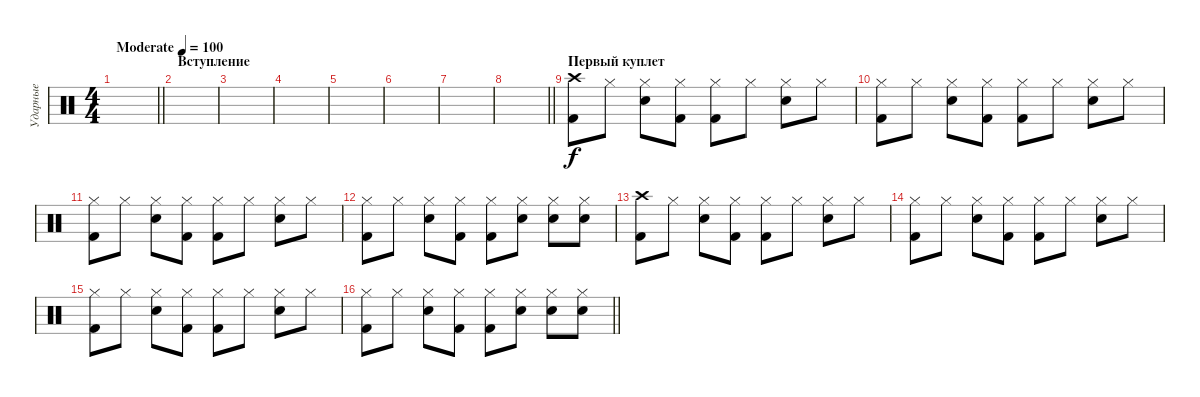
\track ("Ударные" "Ударные") {instrument percussion}
\staff {score}
\articulation defaults
\ts (4 4)
\tempo (100 "Moderate")
\clef neutral
\barLineRight lightlight
\ks c
|
\section ("" "Вступление")
|
|
|
|
|
|
\barLineRight lightlight
|
\section ("" "Первый куплет")
("Crash high (hit)" "Kick (hit) 2").8 "Hi-Hat (closed)".8 ("Hi-Hat (closed)" "Snare (hit) 2").8 ("Hi-Hat (closed)" "Kick (hit) 2").8 ("Hi-Hat (closed)" "Kick (hit) 2").8 "Hi-Hat (closed)".8 ("Hi-Hat (closed)" "Snare (hit) 2").8 "Hi-Hat (closed)".8 |
("Hi-Hat (closed)" "Kick (hit) 2").8 "Hi-Hat (closed)".8 ("Hi-Hat (closed)" "Snare (hit) 2").8 ("Hi-Hat (closed)" "Kick (hit) 2").8 ("Hi-Hat (closed)" "Kick (hit) 2").8 "Hi-Hat (closed)".8 ("Hi-Hat (closed)" "Snare (hit) 2").8 "Hi-Hat (closed)".8 |
("Hi-Hat (closed)" "Kick (hit) 2").8 "Hi-Hat (closed)".8 ("Hi-Hat (closed)" "Snare (hit) 2").8 ("Hi-Hat (closed)" "Kick (hit) 2").8 ("Hi-Hat (closed)" "Kick (hit) 2").8 "Hi-Hat (closed)".8 ("Hi-Hat (closed)" "Snare (hit) 2").8 "Hi-Hat (closed)".8 |
("Hi-Hat (closed)" "Kick (hit) 2").8 "Hi-Hat (closed)".8 ("Hi-Hat (closed)" "Snare (hit) 2").8 ("Hi-Hat (closed)" "Kick (hit) 2").8 ("Hi-Hat (closed)" "Kick (hit) 2").8 ("Hi-Hat (closed)" "Snare (hit) 2").8 ("Hi-Hat (closed)" "Snare (hit) 2").8 ("Hi-Hat (closed)" "Snare (hit) 2").8 |
("Crash high (hit)" "Kick (hit) 2").8 "Hi-Hat (closed)".8 ("Hi-Hat (closed)" "Snare (hit) 2").8 ("Hi-Hat (closed)" "Kick (hit) 2").8 ("Hi-Hat (closed)" "Kick (hit) 2").8 "Hi-Hat (closed)".8 ("Hi-Hat (closed)" "Snare (hit) 2").8 "Hi-Hat (closed)".8 |
("Hi-Hat (closed)" "Kick (hit) 2").8 "Hi-Hat (closed)".8 ("Hi-Hat (closed)" "Snare (hit) 2").8 ("Hi-Hat (closed)" "Kick (hit) 2").8 ("Hi-Hat (closed)" "Kick (hit) 2").8 "Hi-Hat (closed)".8 ("Hi-Hat (closed)" "Snare (hit) 2").8 "Hi-Hat (closed)".8 |
("Hi-Hat (closed)" "Kick (hit) 2").8 "Hi-Hat (closed)".8 ("Hi-Hat (closed)" "Snare (hit) 2").8 ("Hi-Hat (closed)" "Kick (hit) 2").8 ("Hi-Hat (closed)" "Kick (hit) 2").8 "Hi-Hat (closed)".8 ("Hi-Hat (closed)" "Snare (hit) 2").8 "Hi-Hat (closed)".8 |
\barLineRight lightlight
("Hi-Hat (closed)" "Kick (hit) 2").8 "Hi-Hat (closed)".8 ("Hi-Hat (closed)" "Snare (hit) 2").8 ("Hi-Hat (closed)" "Kick (hit) 2").8 ("Hi-Hat (closed)" "Kick (hit) 2").8 ("Hi-Hat (closed)" "Snare (hit) 2").8 ("Hi-Hat (closed)" "Snare (hit) 2").8 ("Hi-Hat (closed)" "Snare (hit) 2").8
